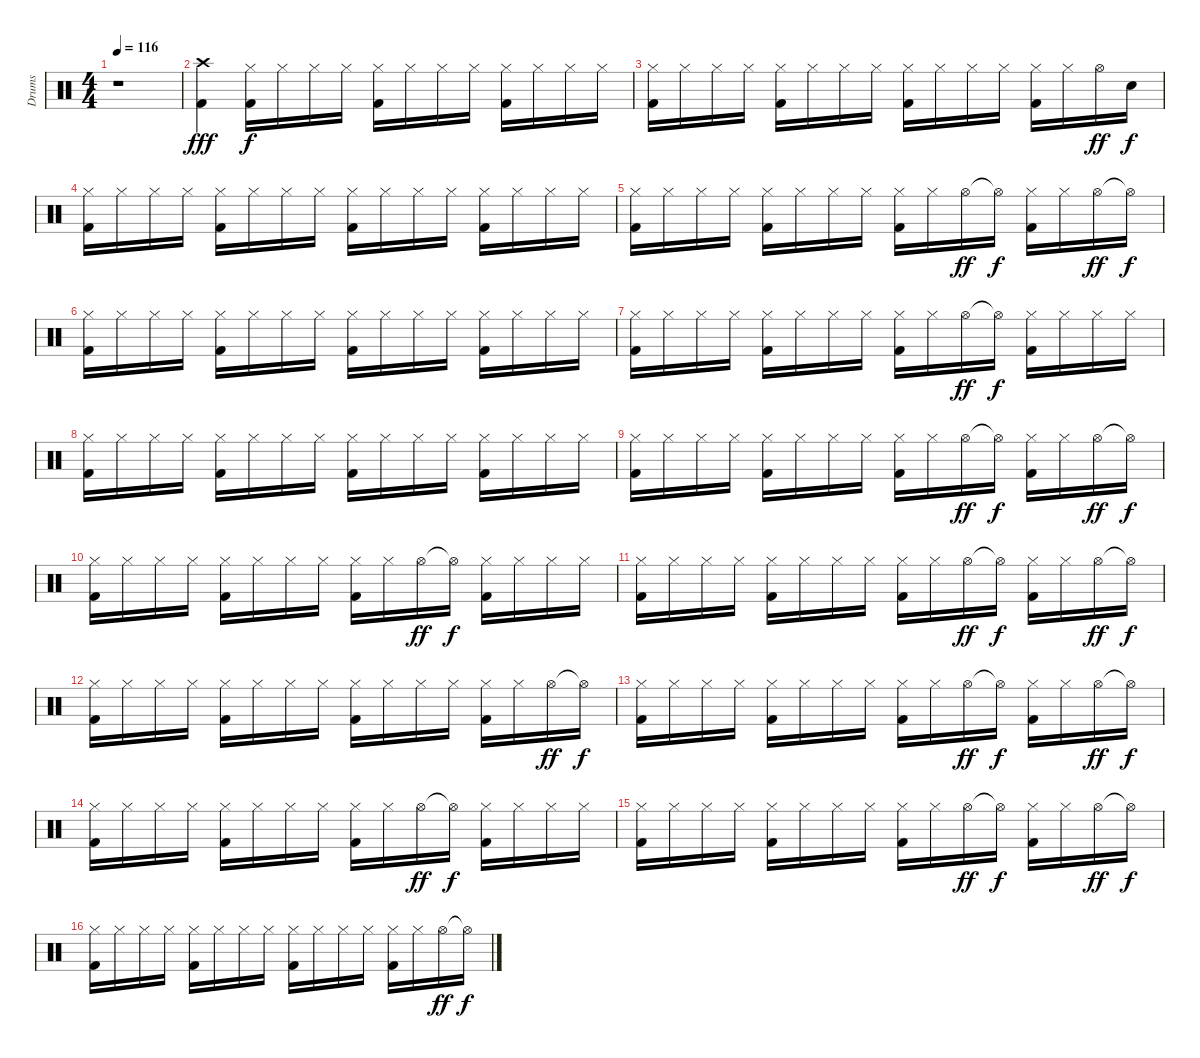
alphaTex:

\track ("Drums" "Drums") {instrument percussion}
\staff {score}
\articulation defaults
\ts (4 4)
\tempo 116
\clef neutral
\ks c
r.1{dy fff} |
("Crash high (hit)" "Kick (hit) 2").4 ("Hi-Hat (closed)" "Kick (hit) 2").16{dy f} "Hi-Hat (closed)".16 "Hi-Hat (closed)".16 "Hi-Hat (closed)".16 ("Hi-Hat (closed)" "Kick (hit) 2").16 "Hi-Hat (closed)".16 "Hi-Hat (closed)".16 "Hi-Hat (closed)".16 ("Hi-Hat (closed)" "Kick (hit) 2").16 "Hi-Hat (closed)".16 "Hi-Hat (closed)".16 "Hi-Hat (closed)".16 |
("Hi-Hat (closed)" "Kick (hit) 2").16 "Hi-Hat (closed)".16 "Hi-Hat (closed)".16 "Hi-Hat (closed)".16 ("Hi-Hat (closed)" "Kick (hit) 2").16 "Hi-Hat (closed)".16 "Hi-Hat (closed)".16 "Hi-Hat (closed)".16 ("Hi-Hat (closed)" "Kick (hit) 2").16 "Hi-Hat (closed)".16 "Hi-Hat (closed)".16 "Hi-Hat (closed)".16 ("Hi-Hat (closed)" "Kick (hit) 2").16 "Hi-Hat (closed)".16 "Hi-Hat (open)".16{dy ff} "Snare (hit)".16{dy f} |
("Hi-Hat (closed)" "Kick (hit) 2").16 "Hi-Hat (closed)".16 "Hi-Hat (closed)".16 "Hi-Hat (closed)".16 ("Hi-Hat (closed)" "Kick (hit) 2").16 "Hi-Hat (closed)".16 "Hi-Hat (closed)".16 "Hi-Hat (closed)".16 ("Hi-Hat (closed)" "Kick (hit) 2").16 "Hi-Hat (closed)".16 "Hi-Hat (closed)".16 "Hi-Hat (closed)".16 ("Hi-Hat (closed)" "Kick (hit) 2").16 "Hi-Hat (closed)".16 "Hi-Hat (closed)".16 "Hi-Hat (closed)".16 |
("Hi-Hat (closed)" "Kick (hit) 2").16 "Hi-Hat (closed)".16 "Hi-Hat (closed)".16 "Hi-Hat (closed)".16 ("Hi-Hat (closed)" "Kick (hit) 2").16 "Hi-Hat (closed)".16 "Hi-Hat (closed)".16 "Hi-Hat (closed)".16 ("Hi-Hat (closed)" "Kick (hit) 2").16 "Hi-Hat (closed)".16 "Hi-Hat (open)".16{dy ff} "Hi-Hat (open)"{t}.16{dy f} ("Hi-Hat (closed)" "Kick (hit) 2").16 "Hi-Hat (closed)".16 "Hi-Hat (open)".16{dy ff} "Hi-Hat (open)"{t}.16{dy f} |
("Hi-Hat (closed)" "Kick (hit) 2").16 "Hi-Hat (closed)".16 "Hi-Hat (closed)".16 "Hi-Hat (closed)".16 ("Hi-Hat (closed)" "Kick (hit) 2").16 "Hi-Hat (closed)".16 "Hi-Hat (closed)".16 "Hi-Hat (closed)".16 ("Hi-Hat (closed)" "Kick (hit) 2").16 "Hi-Hat (closed)".16 "Hi-Hat (closed)".16 "Hi-Hat (closed)".16 ("Hi-Hat (closed)" "Kick (hit) 2").16 "Hi-Hat (closed)".16 "Hi-Hat (closed)".16 "Hi-Hat (closed)".16 |
("Hi-Hat (closed)" "Kick (hit) 2").16 "Hi-Hat (closed)".16 "Hi-Hat (closed)".16 "Hi-Hat (closed)".16 ("Hi-Hat (closed)" "Kick (hit) 2").16 "Hi-Hat (closed)".16 "Hi-Hat (closed)".16 "Hi-Hat (closed)".16 ("Hi-Hat (closed)" "Kick (hit) 2").16 "Hi-Hat (closed)".16 "Hi-Hat (open)".16{dy ff} "Hi-Hat (open)"{t}.16{dy f} ("Hi-Hat (closed)" "Kick (hit) 2").16 "Hi-Hat (closed)".16 "Hi-Hat (closed)".16 "Hi-Hat (closed)".16 |
("Hi-Hat (closed)" "Kick (hit) 2").16 "Hi-Hat (closed)".16 "Hi-Hat (closed)".16 "Hi-Hat (closed)".16 ("Hi-Hat (closed)" "Kick (hit) 2").16 "Hi-Hat (closed)".16 "Hi-Hat (closed)".16 "Hi-Hat (closed)".16 ("Hi-Hat (closed)" "Kick (hit) 2").16 "Hi-Hat (closed)".16 "Hi-Hat (closed)".16 "Hi-Hat (closed)".16 ("Hi-Hat (closed)" "Kick (hit) 2").16 "Hi-Hat (closed)".16 "Hi-Hat (closed)".16 "Hi-Hat (closed)".16 |
("Hi-Hat (closed)" "Kick (hit) 2").16 "Hi-Hat (closed)".16 "Hi-Hat (closed)".16 "Hi-Hat (closed)".16 ("Hi-Hat (closed)" "Kick (hit) 2").16 "Hi-Hat (closed)".16 "Hi-Hat (closed)".16 "Hi-Hat (closed)".16 ("Hi-Hat (closed)" "Kick (hit) 2").16 "Hi-Hat (closed)".16 "Hi-Hat (open)".16{dy ff} "Hi-Hat (open)"{t}.16{dy f} ("Hi-Hat (closed)" "Kick (hit) 2").16 "Hi-Hat (closed)".16 "Hi-Hat (open)".16{dy ff} "Hi-Hat (open)"{t}.16{dy f} |
("Hi-Hat (closed)" "Kick (hit) 2").16 "Hi-Hat (closed)".16 "Hi-Hat (closed)".16 "Hi-Hat (closed)".16 ("Hi-Hat (closed)" "Kick (hit) 2").16 "Hi-Hat (closed)".16 "Hi-Hat (closed)".16 "Hi-Hat (closed)".16 ("Hi-Hat (closed)" "Kick (hit) 2").16 "Hi-Hat (closed)".16 "Hi-Hat (open)".16{dy ff} "Hi-Hat (open)"{t}.16{dy f} ("Hi-Hat (closed)" "Kick (hit) 2").16 "Hi-Hat (closed)".16 "Hi-Hat (closed)".16 "Hi-Hat (closed)".16 |
("Hi-Hat (closed)" "Kick (hit) 2").16 "Hi-Hat (closed)".16 "Hi-Hat (closed)".16 "Hi-Hat (closed)".16 ("Hi-Hat (closed)" "Kick (hit) 2").16 "Hi-Hat (closed)".16 "Hi-Hat (closed)".16 "Hi-Hat (closed)".16 ("Hi-Hat (closed)" "Kick (hit) 2").16 "Hi-Hat (closed)".16 "Hi-Hat (open)".16{dy ff} "Hi-Hat (open)"{t}.16{dy f} ("Hi-Hat (closed)" "Kick (hit) 2").16 "Hi-Hat (closed)".16 "Hi-Hat (open)".16{dy ff} "Hi-Hat (open)"{t}.16{dy f} |
("Hi-Hat (closed)" "Kick (hit) 2").16 "Hi-Hat (closed)".16 "Hi-Hat (closed)".16 "Hi-Hat (closed)".16 ("Hi-Hat (closed)" "Kick (hit) 2").16 "Hi-Hat (closed)".16 "Hi-Hat (closed)".16 "Hi-Hat (closed)".16 ("Hi-Hat (closed)" "Kick (hit) 2").16 "Hi-Hat (closed)".16 "Hi-Hat (closed)".16 "Hi-Hat (closed)".16 ("Hi-Hat (closed)" "Kick (hit) 2").16 "Hi-Hat (closed)".16 "Hi-Hat (open)".16{dy ff} "Hi-Hat (open)"{t}.16{dy f} |
("Hi-Hat (closed)" "Kick (hit) 2").16 "Hi-Hat (closed)".16 "Hi-Hat (closed)".16 "Hi-Hat (closed)".16 ("Hi-Hat (closed)" "Kick (hit) 2").16 "Hi-Hat (closed)".16 "Hi-Hat (closed)".16 "Hi-Hat (closed)".16 ("Hi-Hat (closed)" "Kick (hit) 2").16 "Hi-Hat (closed)".16 "Hi-Hat (open)".16{dy ff} "Hi-Hat (open)"{t}.16{dy f} ("Hi-Hat (closed)" "Kick (hit) 2").16 "Hi-Hat (closed)".16 "Hi-Hat (open)".16{dy ff} "Hi-Hat (open)"{t}.16{dy f} |
("Hi-Hat (closed)" "Kick (hit) 2").16 "Hi-Hat (closed)".16 "Hi-Hat (closed)".16 "Hi-Hat (closed)".16 ("Hi-Hat (closed)" "Kick (hit) 2").16 "Hi-Hat (closed)".16 "Hi-Hat (closed)".16 "Hi-Hat (closed)".16 ("Hi-Hat (closed)" "Kick (hit) 2").16 "Hi-Hat (closed)".16 "Hi-Hat (open)".16{dy ff} "Hi-Hat (open)"{t}.16{dy f} ("Hi-Hat (closed)" "Kick (hit) 2").16 "Hi-Hat (closed)".16 "Hi-Hat (closed)".16 "Hi-Hat (closed)".16 |
("Hi-Hat (closed)" "Kick (hit) 2").16 "Hi-Hat (closed)".16 "Hi-Hat (closed)".16 "Hi-Hat (closed)".16 ("Hi-Hat (closed)" "Kick (hit) 2").16 "Hi-Hat (closed)".16 "Hi-Hat (closed)".16 "Hi-Hat (closed)".16 ("Hi-Hat (closed)" "Kick (hit) 2").16 "Hi-Hat (closed)".16 "Hi-Hat (open)".16{dy ff} "Hi-Hat (open)"{t}.16{dy f} ("Hi-Hat (closed)" "Kick (hit) 2").16 "Hi-Hat (closed)".16 "Hi-Hat (open)".16{dy ff} "Hi-Hat (open)"{t}.16{dy f} |
("Hi-Hat (closed)" "Kick (hit) 2").16 "Hi-Hat (closed)".16 "Hi-Hat (closed)".16 "Hi-Hat (closed)".16 ("Hi-Hat (closed)" "Kick (hit) 2").16 "Hi-Hat (closed)".16 "Hi-Hat (closed)".16 "Hi-Hat (closed)".16 ("Hi-Hat (closed)" "Kick (hit) 2").16 "Hi-Hat (closed)".16 "Hi-Hat (closed)".16 "Hi-Hat (closed)".16 ("Hi-Hat (closed)" "Kick (hit) 2").16 "Hi-Hat (closed)".16 "Hi-Hat (open)".16{dy ff} "Hi-Hat (open)"{t}.16{dy f}
